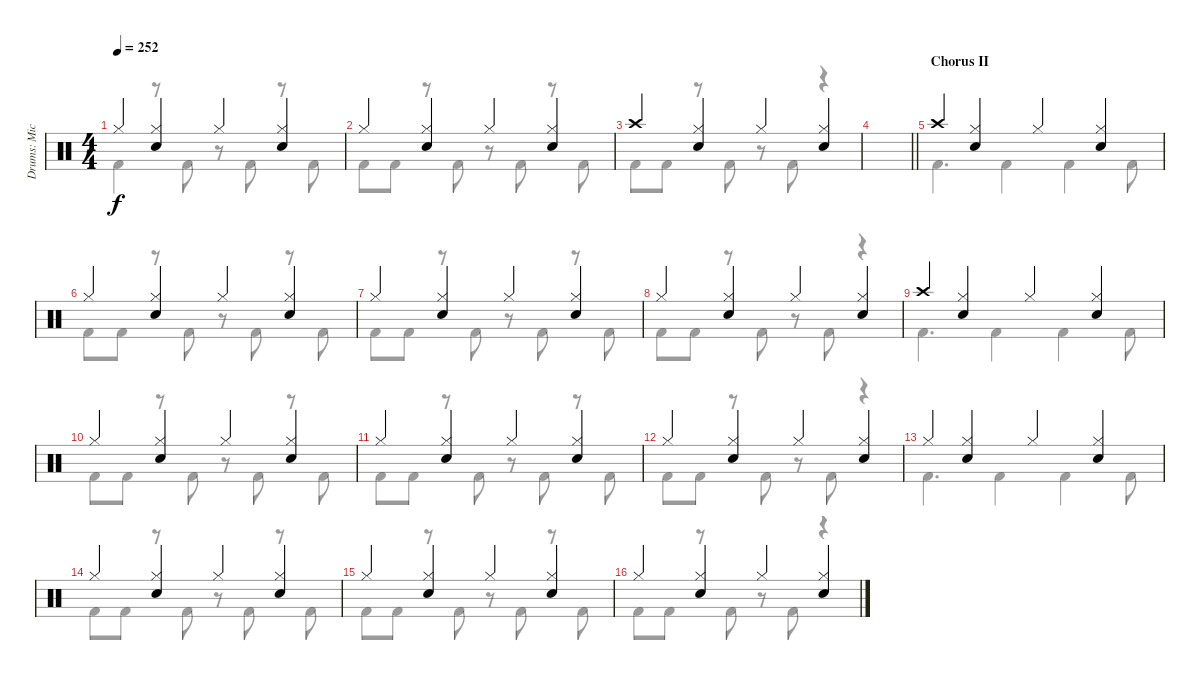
\track ("Drums: Mick" "Drums: Mic") {instrument percussion}
\staff {score}
\articulation defaults
\voice
\ts (4 4)
\tempo 252
\clef neutral
\ks c "Hi-Hat (closed)".4{dy f}
("Hi-Hat (closed)" "Snare (hit) 2").4 "Hi-Hat (closed)".4 ("Hi-Hat (closed)" "Snare (hit) 2").4 |
"Hi-Hat (closed)".4 ("Hi-Hat (closed)" "Snare (hit) 2").4 "Hi-Hat (closed)".4 ("Hi-Hat (closed)" "Snare (hit) 2").4 |
"Crash high (hit)".4 ("Hi-Hat (closed)" "Snare (hit) 2").4 "Hi-Hat (closed)".4 ("Hi-Hat (closed)" "Snare (hit) 2").4 |
\barLineRight lightlight
|
\section ("" "Chorus II")
"Crash high (hit)".4 ("Hi-Hat (closed)" "Snare (hit) 2").4 "Hi-Hat (closed)".4 ("Hi-Hat (closed)" "Snare (hit) 2").4 |
"Hi-Hat (closed)".4 ("Hi-Hat (closed)" "Snare (hit) 2").4 "Hi-Hat (closed)".4 ("Hi-Hat (closed)" "Snare (hit) 2").4 |
"Hi-Hat (closed)".4 ("Hi-Hat (closed)" "Snare (hit) 2").4 "Hi-Hat (closed)".4 ("Hi-Hat (closed)" "Snare (hit) 2").4 |
"Hi-Hat (closed)".4 ("Hi-Hat (closed)" "Snare (hit) 2").4 "Hi-Hat (closed)".4 ("Hi-Hat (closed)" "Snare (hit) 2").4 |
"Crash high (hit)".4 ("Hi-Hat (closed)" "Snare (hit) 2").4 "Hi-Hat (closed)".4 ("Hi-Hat (closed)" "Snare (hit) 2").4 |
"Hi-Hat (closed)".4 ("Hi-Hat (closed)" "Snare (hit) 2").4 "Hi-Hat (closed)".4 ("Hi-Hat (closed)" "Snare (hit) 2").4 |
"Hi-Hat (closed)".4 ("Hi-Hat (closed)" "Snare (hit) 2").4 "Hi-Hat (closed)".4 ("Hi-Hat (closed)" "Snare (hit) 2").4 |
"Hi-Hat (closed)".4 ("Hi-Hat (closed)" "Snare (hit) 2").4 "Hi-Hat (closed)".4 ("Hi-Hat (closed)" "Snare (hit) 2").4 |
"Hi-Hat (closed)".4 ("Hi-Hat (closed)" "Snare (hit) 2").4 "Hi-Hat (closed)".4 ("Hi-Hat (closed)" "Snare (hit) 2").4 |
"Hi-Hat (closed)".4 ("Hi-Hat (closed)" "Snare (hit) 2").4 "Hi-Hat (closed)".4 ("Hi-Hat (closed)" "Snare (hit) 2").4 |
"Hi-Hat (closed)".4 ("Hi-Hat (closed)" "Snare (hit) 2").4 "Hi-Hat (closed)".4 ("Hi-Hat (closed)" "Snare (hit) 2").4 |
"Hi-Hat (closed)".4 ("Hi-Hat (closed)" "Snare (hit) 2").4 "Hi-Hat (closed)".4 ("Hi-Hat (closed)" "Snare (hit) 2").4
\voice
\clef neutral
\ottava regular
\simile none
\ks c "Kick (hit) 2".4{dy f}
r.8 "Kick (hit) 2".8 r.8 "Kick (hit) 2".8 r.8 "Kick (hit) 2".8 |
"Kick (hit) 2".8 "Kick (hit) 2".8 r.8 "Kick (hit) 2".8 r.8 "Kick (hit) 2".8 r.8 "Kick (hit) 2".8 |
"Kick (hit) 2".8 "Kick (hit) 2".8 r.8 "Kick (hit) 2".8 r.8 "Kick (hit) 2".8 r.4 |
\barLineRight lightlight
|
"Kick (hit) 2".4{d} "Kick (hit) 2".4 "Kick (hit) 2".4 "Kick (hit) 2".8 |
"Kick (hit) 2".8 "Kick (hit) 2".8 r.8 "Kick (hit) 2".8 r.8 "Kick (hit) 2".8 r.8 "Kick (hit) 2".8 |
"Kick (hit) 2".8 "Kick (hit) 2".8 r.8 "Kick (hit) 2".8 r.8 "Kick (hit) 2".8 r.8 "Kick (hit) 2".8 |
"Kick (hit) 2".8 "Kick (hit) 2".8 r.8 "Kick (hit) 2".8 r.8 "Kick (hit) 2".8 r.4 |
"Kick (hit) 2".4{d} "Kick (hit) 2".4 "Kick (hit) 2".4 "Kick (hit) 2".8 |
"Kick (hit) 2".8 "Kick (hit) 2".8 r.8 "Kick (hit) 2".8 r.8 "Kick (hit) 2".8 r.8 "Kick (hit) 2".8 |
"Kick (hit) 2".8 "Kick (hit) 2".8 r.8 "Kick (hit) 2".8 r.8 "Kick (hit) 2".8 r.8 "Kick (hit) 2".8 |
"Kick (hit) 2".8 "Kick (hit) 2".8 r.8 "Kick (hit) 2".8 r.8 "Kick (hit) 2".8 r.4 |
"Kick (hit) 2".4{d} "Kick (hit) 2".4 "Kick (hit) 2".4 "Kick (hit) 2".8 |
"Kick (hit) 2".8 "Kick (hit) 2".8 r.8 "Kick (hit) 2".8 r.8 "Kick (hit) 2".8 r.8 "Kick (hit) 2".8 |
"Kick (hit) 2".8 "Kick (hit) 2".8 r.8 "Kick (hit) 2".8 r.8 "Kick (hit) 2".8 r.8 "Kick (hit) 2".8 |
"Kick (hit) 2".8 "Kick (hit) 2".8 r.8 "Kick (hit) 2".8 r.8 "Kick (hit) 2".8 r.4
